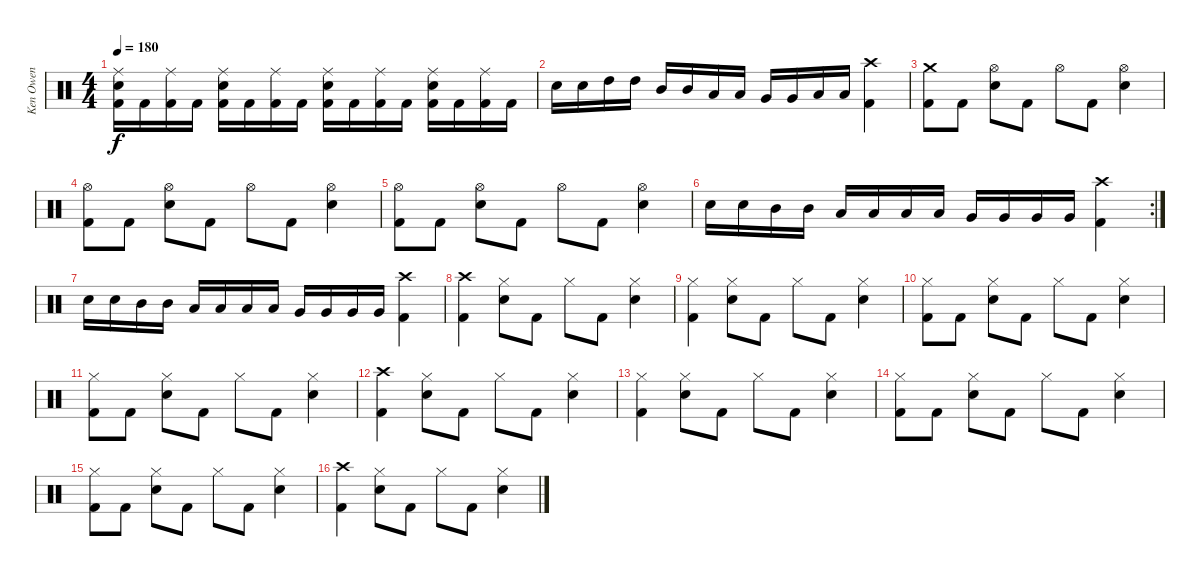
\track ("Ken Owen" "Ken Owen") {instrument percussion}
\staff {score}
\articulation defaults
\ts (4 4)
\tempo 180
\clef neutral
\ks c
("Ride (middle)" "Snare (hit) 2" "Kick (hit) 2").16{dy f} "Kick (hit) 2".16 ("Ride (middle)" "Kick (hit) 2").16 "Kick (hit) 2".16 ("Ride (middle)" "Snare (hit) 2" "Kick (hit) 2").16 "Kick (hit) 2".16 ("Ride (middle)" "Kick (hit) 2").16 "Kick (hit) 2".16 ("Ride (middle)" "Snare (hit) 2" "Kick (hit) 2").16 "Kick (hit) 2".16 ("Ride (middle)" "Kick (hit) 2").16 "Kick (hit) 2".16 ("Ride (middle)" "Snare (hit) 2" "Kick (hit) 2").16 "Kick (hit) 2".16 ("Ride (middle)" "Kick (hit) 2").16 "Kick (hit) 2".16 |
"Snare (hit) 2".16 "Snare (hit) 2".16 "High Tom (hit)".16 "High Tom (hit)".16 "Mid Tom (hit)".16 "Mid Tom (hit)".16 "Low Tom (hit)".16 "Low Tom (hit)".16 "Very Low Tom (hit)".16 "Very Low Tom (hit)".16 "Low Floor Tom (hit)".16 "Low Floor Tom (hit)".16 ("Crash high (hit)" "Kick (hit) 2").4 |
("Crash medium (hit)" "Kick (hit) 2").8 "Kick (hit) 2".8 ("Hi-Hat (open)" "Snare (hit) 2").8 "Kick (hit) 2".8 "Hi-Hat (open)".8 "Kick (hit) 2".8 ("Hi-Hat (open)" "Snare (hit) 2").4 |
("Hi-Hat (open)" "Kick (hit) 2").8 "Kick (hit) 2".8 ("Hi-Hat (open)" "Snare (hit) 2").8 "Kick (hit) 2".8 "Hi-Hat (open)".8 "Kick (hit) 2".8 ("Hi-Hat (open)" "Snare (hit) 2").4 |
("Hi-Hat (open)" "Kick (hit) 2").8 "Kick (hit) 2".8 ("Hi-Hat (open)" "Snare (hit) 2").8 "Kick (hit) 2".8 "Hi-Hat (open)".8 "Kick (hit) 2".8 ("Hi-Hat (open)" "Snare (hit) 2").4 |
\rc 2 "Snare (hit) 2".16 "Snare (hit) 2".16 "Mid Tom (hit)".16 "Mid Tom (hit)".16 "Low Tom (hit)".16 "Low Tom (hit)".16 "Low Tom (hit)".16 "Low Tom (hit)".16 "Very Low Tom (hit)".16 "Very Low Tom (hit)".16 "Very Low Tom (hit)".16 "Very Low Tom (hit)".16
("Crash high (hit)" "Kick (hit) 2").4 |
"Snare (hit) 2".16 "Snare (hit) 2".16 "Mid Tom (hit)".16 "Mid Tom (hit)".16 "Low Tom (hit)".16 "Low Tom (hit)".16 "Low Tom (hit)".16 "Low Tom (hit)".16 "Very Low Tom (hit)".16 "Very Low Tom (hit)".16 "Very Low Tom (hit)".16 "Very Low Tom (hit)".16 ("Crash high (hit)" "Kick (hit) 2").4 |
("Crash high (hit)" "Kick (hit) 2").4 ("Hi-Hat (closed)" "Snare (hit) 2").8 "Kick (hit) 2".8 "Hi-Hat (closed)".8 "Kick (hit) 2".8 ("Hi-Hat (closed)" "Snare (hit) 2").4 |
("Hi-Hat (closed)" "Kick (hit) 2").4 ("Hi-Hat (closed)" "Snare (hit) 2").8 "Kick (hit) 2".8 "Hi-Hat (closed)".8 "Kick (hit) 2".8 ("Hi-Hat (closed)" "Snare (hit) 2").4 |
("Hi-Hat (closed)" "Kick (hit) 2").8 "Kick (hit) 2".8 ("Hi-Hat (closed)" "Snare (hit) 2").8 "Kick (hit) 2".8 "Hi-Hat (closed)".8 "Kick (hit) 2".8 ("Hi-Hat (closed)" "Snare (hit) 2").4 |
("Hi-Hat (closed)" "Kick (hit) 2").8 "Kick (hit) 2".8 ("Hi-Hat (closed)" "Snare (hit) 2").8 "Kick (hit) 2".8 "Hi-Hat (closed)".8 "Kick (hit) 2".8 ("Hi-Hat (closed)" "Snare (hit) 2").4 |
("Crash high (hit)" "Kick (hit) 2").4 ("Hi-Hat (closed)" "Snare (hit) 2").8 "Kick (hit) 2".8 "Hi-Hat (closed)".8 "Kick (hit) 2".8 ("Hi-Hat (closed)" "Snare (hit) 2").4 |
("Hi-Hat (closed)" "Kick (hit) 2").4 ("Hi-Hat (closed)" "Snare (hit) 2").8 "Kick (hit) 2".8 "Hi-Hat (closed)".8 "Kick (hit) 2".8 ("Hi-Hat (closed)" "Snare (hit) 2").4 |
("Hi-Hat (closed)" "Kick (hit) 2").8 "Kick (hit) 2".8 ("Hi-Hat (closed)" "Snare (hit) 2").8 "Kick (hit) 2".8 "Hi-Hat (closed)".8 "Kick (hit) 2".8 ("Hi-Hat (closed)" "Snare (hit) 2").4 |
("Hi-Hat (closed)" "Kick (hit) 2").8 "Kick (hit) 2".8 ("Hi-Hat (closed)" "Snare (hit) 2").8 "Kick (hit) 2".8 "Hi-Hat (closed)".8 "Kick (hit) 2".8 ("Hi-Hat (closed)" "Snare (hit) 2").4 |
("Crash high (hit)" "Kick (hit) 2").4 ("Hi-Hat (closed)" "Snare (hit) 2").8 "Kick (hit) 2".8 "Hi-Hat (closed)".8 "Kick (hit) 2".8 ("Hi-Hat (closed)" "Snare (hit) 2").4
